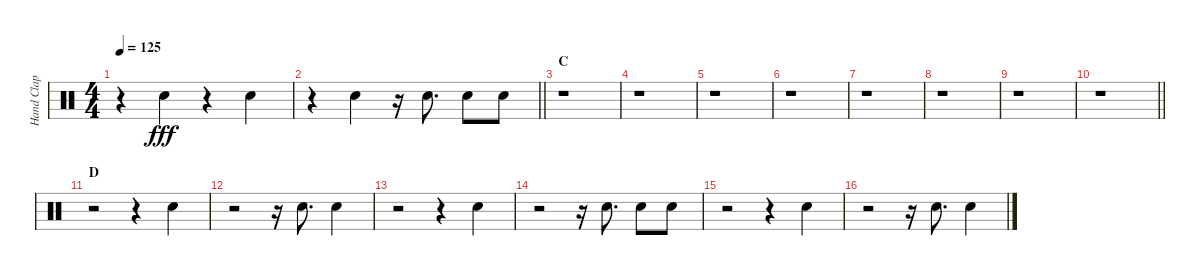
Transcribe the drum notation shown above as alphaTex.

\track ("Hand Clap" "Hand Clap") {instrument percussion}
\staff {score}
\articulation defaults
\ts (4 4)
\tempo 125
\clef neutral
\ks c
r.4{dy fff} "Hand Clap (hit)".4 r.4 "Hand Clap (hit)".4 |
\barLineRight lightlight
r.4 "Hand Clap (hit)".4 r.16 "Hand Clap (hit)".8{d} "Hand Clap (hit)".8 "Hand Clap (hit)".8 |
\section ("" "C")
r.1 |
r.1 |
r.1 |
r.1 |
r.1 |
r.1 |
r.1 |
\barLineRight lightlight
r.1 |
\section ("" "D")
r.2 r.4 "Hand Clap (hit)".4 |
r.2 r.16 "Hand Clap (hit)".8{d} "Hand Clap (hit)".4 |
r.2 r.4 "Hand Clap (hit)".4 |
r.2 r.16 "Hand Clap (hit)".8{d} "Hand Clap (hit)".8 "Hand Clap (hit)".8 |
r.2 r.4 "Hand Clap (hit)".4 |
r.2 r.16 "Hand Clap (hit)".8{d} "Hand Clap (hit)".4
